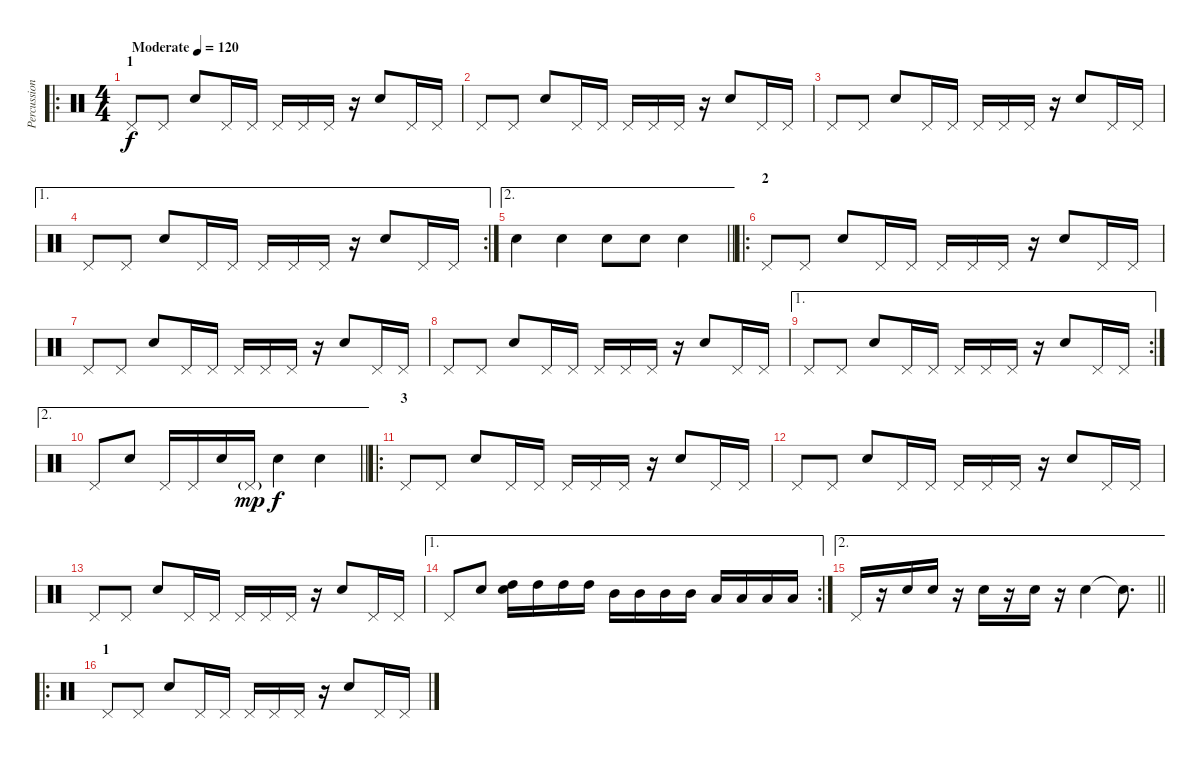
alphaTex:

\track ("Percussion" "Percussion") {instrument percussion}
\staff {score}
\articulation defaults
\ro
\ts (4 4)
\section ("" "1")
\tempo (120 "Moderate")
\clef neutral
\ks c "Pedal Hi-Hat (hit)".8{dy f} "Pedal Hi-Hat (hit)".8 "Hand Clap (hit)".8 "Pedal Hi-Hat (hit)".16 "Pedal Hi-Hat (hit)".16 "Pedal Hi-Hat (hit)".16 "Pedal Hi-Hat (hit)".16 "Pedal Hi-Hat (hit)".16
r.16 "Hand Clap (hit)".8 "Pedal Hi-Hat (hit)".16 "Pedal Hi-Hat (hit)".16 |
"Pedal Hi-Hat (hit)".8 "Pedal Hi-Hat (hit)".8 "Hand Clap (hit)".8 "Pedal Hi-Hat (hit)".16 "Pedal Hi-Hat (hit)".16 "Pedal Hi-Hat (hit)".16 "Pedal Hi-Hat (hit)".16 "Pedal Hi-Hat (hit)".16 r.16 "Hand Clap (hit)".8 "Pedal Hi-Hat (hit)".16 "Pedal Hi-Hat (hit)".16 |
"Pedal Hi-Hat (hit)".8 "Pedal Hi-Hat (hit)".8 "Hand Clap (hit)".8 "Pedal Hi-Hat (hit)".16 "Pedal Hi-Hat (hit)".16 "Pedal Hi-Hat (hit)".16 "Pedal Hi-Hat (hit)".16 "Pedal Hi-Hat (hit)".16 r.16 "Hand Clap (hit)".8 "Pedal Hi-Hat (hit)".16 "Pedal Hi-Hat (hit)".16 |
\ae 1
\rc 2 "Pedal Hi-Hat (hit)".8 "Pedal Hi-Hat (hit)".8 "Hand Clap (hit)".8 "Pedal Hi-Hat (hit)".16 "Pedal Hi-Hat (hit)".16 "Pedal Hi-Hat (hit)".16 "Pedal Hi-Hat (hit)".16 "Pedal Hi-Hat (hit)".16
r.16 "Hand Clap (hit)".8 "Pedal Hi-Hat (hit)".16 "Pedal Hi-Hat (hit)".16 |
\ae 2
\barLineRight lightlight "Hand Clap (hit)".4 "Hand Clap (hit)".4 "Hand Clap (hit)".8 "Hand Clap (hit)".8 "Hand Clap (hit)".4
|
\ro
\section ("" "2")
"Pedal Hi-Hat (hit)".8 "Pedal Hi-Hat (hit)".8 "Hand Clap (hit)".8 "Pedal Hi-Hat (hit)".16 "Pedal Hi-Hat (hit)".16 "Pedal Hi-Hat (hit)".16 "Pedal Hi-Hat (hit)".16 "Pedal Hi-Hat (hit)".16 r.16 "Hand Clap (hit)".8 "Pedal Hi-Hat (hit)".16 "Pedal Hi-Hat (hit)".16 |
"Pedal Hi-Hat (hit)".8 "Pedal Hi-Hat (hit)".8 "Hand Clap (hit)".8 "Pedal Hi-Hat (hit)".16 "Pedal Hi-Hat (hit)".16 "Pedal Hi-Hat (hit)".16 "Pedal Hi-Hat (hit)".16 "Pedal Hi-Hat (hit)".16 r.16 "Hand Clap (hit)".8 "Pedal Hi-Hat (hit)".16 "Pedal Hi-Hat (hit)".16 |
"Pedal Hi-Hat (hit)".8 "Pedal Hi-Hat (hit)".8 "Hand Clap (hit)".8 "Pedal Hi-Hat (hit)".16 "Pedal Hi-Hat (hit)".16 "Pedal Hi-Hat (hit)".16 "Pedal Hi-Hat (hit)".16 "Pedal Hi-Hat (hit)".16 r.16 "Hand Clap (hit)".8 "Pedal Hi-Hat (hit)".16 "Pedal Hi-Hat (hit)".16 |
\ae 1
\rc 2 "Pedal Hi-Hat (hit)".8 "Pedal Hi-Hat (hit)".8 "Hand Clap (hit)".8 "Pedal Hi-Hat (hit)".16 "Pedal Hi-Hat (hit)".16 "Pedal Hi-Hat (hit)".16 "Pedal Hi-Hat (hit)".16 "Pedal Hi-Hat (hit)".16
r.16 "Hand Clap (hit)".8 "Pedal Hi-Hat (hit)".16 "Pedal Hi-Hat (hit)".16 |
\ae 2
\barLineRight lightlight "Pedal Hi-Hat (hit)".8 "Hand Clap (hit)".8 "Pedal Hi-Hat (hit)".16 "Pedal Hi-Hat (hit)".16 "Hand Clap (hit)".16 "Pedal Hi-Hat (hit)"{g}.16{dy mp} "Hand Clap (hit)".4{dy f} "Metronome (bell)".4
|
\ro
\section ("" "3")
"Pedal Hi-Hat (hit)".8 "Pedal Hi-Hat (hit)".8 "Hand Clap (hit)".8 "Pedal Hi-Hat (hit)".16 "Pedal Hi-Hat (hit)".16 "Pedal Hi-Hat (hit)".16 "Pedal Hi-Hat (hit)".16 "Pedal Hi-Hat (hit)".16 r.16 "Hand Clap (hit)".8 "Pedal Hi-Hat (hit)".16 "Pedal Hi-Hat (hit)".16 |
"Pedal Hi-Hat (hit)".8 "Pedal Hi-Hat (hit)".8 "Hand Clap (hit)".8 "Pedal Hi-Hat (hit)".16 "Pedal Hi-Hat (hit)".16 "Pedal Hi-Hat (hit)".16 "Pedal Hi-Hat (hit)".16 "Pedal Hi-Hat (hit)".16 r.16 "Hand Clap (hit)".8 "Pedal Hi-Hat (hit)".16 "Pedal Hi-Hat (hit)".16 |
"Pedal Hi-Hat (hit)".8 "Pedal Hi-Hat (hit)".8 "Hand Clap (hit)".8 "Pedal Hi-Hat (hit)".16 "Pedal Hi-Hat (hit)".16 "Pedal Hi-Hat (hit)".16 "Pedal Hi-Hat (hit)".16 "Pedal Hi-Hat (hit)".16 r.16 "Hand Clap (hit)".8 "Pedal Hi-Hat (hit)".16 "Pedal Hi-Hat (hit)".16 |
\ae 1
\rc 2 "Pedal Hi-Hat (hit)".8 "Hand Clap (hit)".8
("High Tom (hit)" "Hand Clap (hit)").16 "High Tom (hit)".16 "High Tom (hit)".16 "High Tom (hit)".16 "Mid Tom (hit)".16 "Mid Tom (hit)".16 "Mid Tom (hit)".16 "Mid Tom (hit)".16 "Low Tom (hit)".16 "Low Tom (hit)".16 "Low Tom (hit)".16 "Low Tom (hit)".16 |
\ae 2
\barLineRight lightlight "Pedal Hi-Hat (hit)".16
r.16 "Hand Clap (hit)".16 "Hand Clap (hit)".16 r.16 "Hand Clap (hit)".16 r.16 "Hand Clap (hit)".16 r.16 "Hand Clap (hit)".4 "Snare (hit)"{t}.8{d} |
\ro
\section ("" "1")
"Pedal Hi-Hat (hit)".8 "Pedal Hi-Hat (hit)".8 "Hand Clap (hit)".8 "Pedal Hi-Hat (hit)".16 "Pedal Hi-Hat (hit)".16 "Pedal Hi-Hat (hit)".16 "Pedal Hi-Hat (hit)".16 "Pedal Hi-Hat (hit)".16 r.16 "Hand Clap (hit)".8 "Pedal Hi-Hat (hit)".16 "Pedal Hi-Hat (hit)".16
